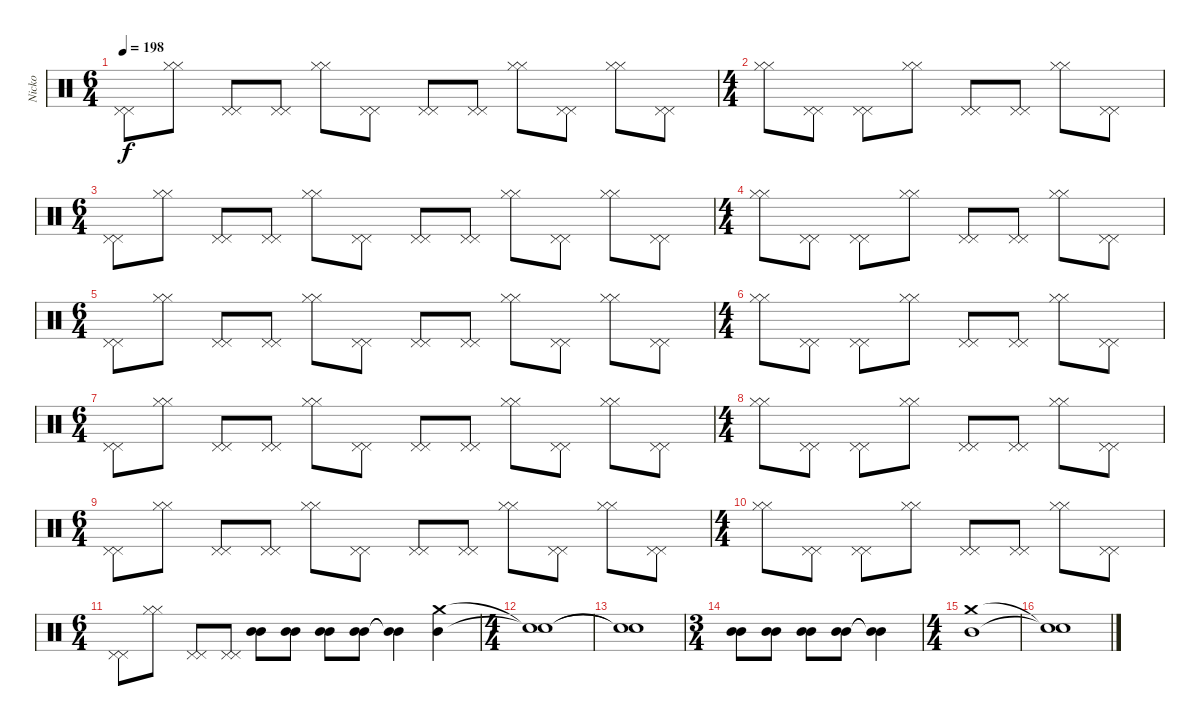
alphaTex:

\track ("Nicko" "Nicko") {instrument percussion}
\staff {score}
\articulation defaults
\ts (6 4)
\tempo 198
\clef neutral
\ks c
("Pedal Hi-Hat (hit)" "Pedal Hi-Hat (hit)").8{dy f} ("Hi-Hat (closed)" "Hi-Hat (closed)").8 ("Pedal Hi-Hat (hit)" "Pedal Hi-Hat (hit)").8 ("Pedal Hi-Hat (hit)" "Pedal Hi-Hat (hit)").8 ("Hi-Hat (closed)" "Hi-Hat (closed)").8 ("Pedal Hi-Hat (hit)" "Pedal Hi-Hat (hit)").8 ("Pedal Hi-Hat (hit)" "Pedal Hi-Hat (hit)").8 ("Pedal Hi-Hat (hit)" "Pedal Hi-Hat (hit)").8 ("Hi-Hat (closed)" "Hi-Hat (closed)").8 ("Pedal Hi-Hat (hit)" "Pedal Hi-Hat (hit)").8 ("Hi-Hat (closed)" "Hi-Hat (closed)").8 ("Pedal Hi-Hat (hit)" "Pedal Hi-Hat (hit)").8 |
\ts (4 4)
("Hi-Hat (closed)" "Hi-Hat (closed)").8 ("Pedal Hi-Hat (hit)" "Pedal Hi-Hat (hit)").8 ("Pedal Hi-Hat (hit)" "Pedal Hi-Hat (hit)").8 ("Hi-Hat (closed)" "Hi-Hat (closed)").8 ("Pedal Hi-Hat (hit)" "Pedal Hi-Hat (hit)").8 ("Pedal Hi-Hat (hit)" "Pedal Hi-Hat (hit)").8 ("Hi-Hat (closed)" "Hi-Hat (closed)").8 ("Pedal Hi-Hat (hit)" "Pedal Hi-Hat (hit)").8 |
\ts (6 4)
("Pedal Hi-Hat (hit)" "Pedal Hi-Hat (hit)").8 ("Hi-Hat (closed)" "Hi-Hat (closed)").8 ("Pedal Hi-Hat (hit)" "Pedal Hi-Hat (hit)").8 ("Pedal Hi-Hat (hit)" "Pedal Hi-Hat (hit)").8 ("Hi-Hat (closed)" "Hi-Hat (closed)").8 ("Pedal Hi-Hat (hit)" "Pedal Hi-Hat (hit)").8 ("Pedal Hi-Hat (hit)" "Pedal Hi-Hat (hit)").8 ("Pedal Hi-Hat (hit)" "Pedal Hi-Hat (hit)").8 ("Hi-Hat (closed)" "Hi-Hat (closed)").8 ("Pedal Hi-Hat (hit)" "Pedal Hi-Hat (hit)").8 ("Hi-Hat (closed)" "Hi-Hat (closed)").8 ("Pedal Hi-Hat (hit)" "Pedal Hi-Hat (hit)").8 |
\ts (4 4)
("Hi-Hat (closed)" "Hi-Hat (closed)").8 ("Pedal Hi-Hat (hit)" "Pedal Hi-Hat (hit)").8 ("Pedal Hi-Hat (hit)" "Pedal Hi-Hat (hit)").8 ("Hi-Hat (closed)" "Hi-Hat (closed)").8 ("Pedal Hi-Hat (hit)" "Pedal Hi-Hat (hit)").8 ("Pedal Hi-Hat (hit)" "Pedal Hi-Hat (hit)").8 ("Hi-Hat (closed)" "Hi-Hat (closed)").8 ("Pedal Hi-Hat (hit)" "Pedal Hi-Hat (hit)").8 |
\ts (6 4)
("Pedal Hi-Hat (hit)" "Pedal Hi-Hat (hit)").8 ("Hi-Hat (closed)" "Hi-Hat (closed)").8 ("Pedal Hi-Hat (hit)" "Pedal Hi-Hat (hit)").8 ("Pedal Hi-Hat (hit)" "Pedal Hi-Hat (hit)").8 ("Hi-Hat (closed)" "Hi-Hat (closed)").8 ("Pedal Hi-Hat (hit)" "Pedal Hi-Hat (hit)").8 ("Pedal Hi-Hat (hit)" "Pedal Hi-Hat (hit)").8 ("Pedal Hi-Hat (hit)" "Pedal Hi-Hat (hit)").8 ("Hi-Hat (closed)" "Hi-Hat (closed)").8 ("Pedal Hi-Hat (hit)" "Pedal Hi-Hat (hit)").8 ("Hi-Hat (closed)" "Hi-Hat (closed)").8 ("Pedal Hi-Hat (hit)" "Pedal Hi-Hat (hit)").8 |
\ts (4 4)
("Hi-Hat (closed)" "Hi-Hat (closed)").8 ("Pedal Hi-Hat (hit)" "Pedal Hi-Hat (hit)").8 ("Pedal Hi-Hat (hit)" "Pedal Hi-Hat (hit)").8 ("Hi-Hat (closed)" "Hi-Hat (closed)").8 ("Pedal Hi-Hat (hit)" "Pedal Hi-Hat (hit)").8 ("Pedal Hi-Hat (hit)" "Pedal Hi-Hat (hit)").8 ("Hi-Hat (closed)" "Hi-Hat (closed)").8 ("Pedal Hi-Hat (hit)" "Pedal Hi-Hat (hit)").8 |
\ts (6 4)
("Pedal Hi-Hat (hit)" "Pedal Hi-Hat (hit)").8 ("Hi-Hat (closed)" "Hi-Hat (closed)").8 ("Pedal Hi-Hat (hit)" "Pedal Hi-Hat (hit)").8 ("Pedal Hi-Hat (hit)" "Pedal Hi-Hat (hit)").8 ("Hi-Hat (closed)" "Hi-Hat (closed)").8 ("Pedal Hi-Hat (hit)" "Pedal Hi-Hat (hit)").8 ("Pedal Hi-Hat (hit)" "Pedal Hi-Hat (hit)").8 ("Pedal Hi-Hat (hit)" "Pedal Hi-Hat (hit)").8 ("Hi-Hat (closed)" "Hi-Hat (closed)").8 ("Pedal Hi-Hat (hit)" "Pedal Hi-Hat (hit)").8 ("Hi-Hat (closed)" "Hi-Hat (closed)").8 ("Pedal Hi-Hat (hit)" "Pedal Hi-Hat (hit)").8 |
\ts (4 4)
("Hi-Hat (closed)" "Hi-Hat (closed)").8 ("Pedal Hi-Hat (hit)" "Pedal Hi-Hat (hit)").8 ("Pedal Hi-Hat (hit)" "Pedal Hi-Hat (hit)").8 ("Hi-Hat (closed)" "Hi-Hat (closed)").8 ("Pedal Hi-Hat (hit)" "Pedal Hi-Hat (hit)").8 ("Pedal Hi-Hat (hit)" "Pedal Hi-Hat (hit)").8 ("Hi-Hat (closed)" "Hi-Hat (closed)").8 ("Pedal Hi-Hat (hit)" "Pedal Hi-Hat (hit)").8 |
\ts (6 4)
("Pedal Hi-Hat (hit)" "Pedal Hi-Hat (hit)").8 ("Hi-Hat (closed)" "Hi-Hat (closed)").8 ("Pedal Hi-Hat (hit)" "Pedal Hi-Hat (hit)").8 ("Pedal Hi-Hat (hit)" "Pedal Hi-Hat (hit)").8 ("Hi-Hat (closed)" "Hi-Hat (closed)").8 ("Pedal Hi-Hat (hit)" "Pedal Hi-Hat (hit)").8 ("Pedal Hi-Hat (hit)" "Pedal Hi-Hat (hit)").8 ("Pedal Hi-Hat (hit)" "Pedal Hi-Hat (hit)").8 ("Hi-Hat (closed)" "Hi-Hat (closed)").8 ("Pedal Hi-Hat (hit)" "Pedal Hi-Hat (hit)").8 ("Hi-Hat (closed)" "Hi-Hat (closed)").8 ("Pedal Hi-Hat (hit)" "Pedal Hi-Hat (hit)").8 |
\ts (4 4)
("Hi-Hat (closed)" "Hi-Hat (closed)").8 ("Pedal Hi-Hat (hit)" "Pedal Hi-Hat (hit)").8 ("Pedal Hi-Hat (hit)" "Pedal Hi-Hat (hit)").8 ("Hi-Hat (closed)" "Hi-Hat (closed)").8 ("Pedal Hi-Hat (hit)" "Pedal Hi-Hat (hit)").8 ("Pedal Hi-Hat (hit)" "Pedal Hi-Hat (hit)").8 ("Hi-Hat (closed)" "Hi-Hat (closed)").8 ("Pedal Hi-Hat (hit)" "Pedal Hi-Hat (hit)").8 |
\ts (6 4)
("Pedal Hi-Hat (hit)" "Pedal Hi-Hat (hit)").8 ("Hi-Hat (closed)" "Hi-Hat (closed)").8 ("Pedal Hi-Hat (hit)" "Pedal Hi-Hat (hit)").8 ("Pedal Hi-Hat (hit)" "Pedal Hi-Hat (hit)").8 ("Mid Tom (hit)" "Mid Tom (hit)").8 ("Mid Tom (hit)" "Mid Tom (hit)").8 ("Mid Tom (hit)" "Mid Tom (hit)").8 ("Mid Tom (hit)" "Mid Tom (hit)").8 ("Mid Tom (hit)"{t} "Mid Tom (hit)"{t}).4 ("Crash medium (hit)" "Mid Tom (hit)").4 |
\ts (4 4)
("Snare (hit)"{t} "Snare (hit)"{t}).1 |
("Snare (hit)"{t} "Snare (hit)"{t}).1 |
\ts (3 4)
("Mid Tom (hit)" "Mid Tom (hit)").8 ("Mid Tom (hit)" "Mid Tom (hit)").8 ("Mid Tom (hit)" "Mid Tom (hit)").8 ("Mid Tom (hit)" "Mid Tom (hit)").8 ("Mid Tom (hit)"{t} "Mid Tom (hit)"{t}).4 |
\ts (4 4)
("Crash medium (hit)" "Mid Tom (hit)").1 |
("Snare (hit)"{t} "Snare (hit)"{t}).1
